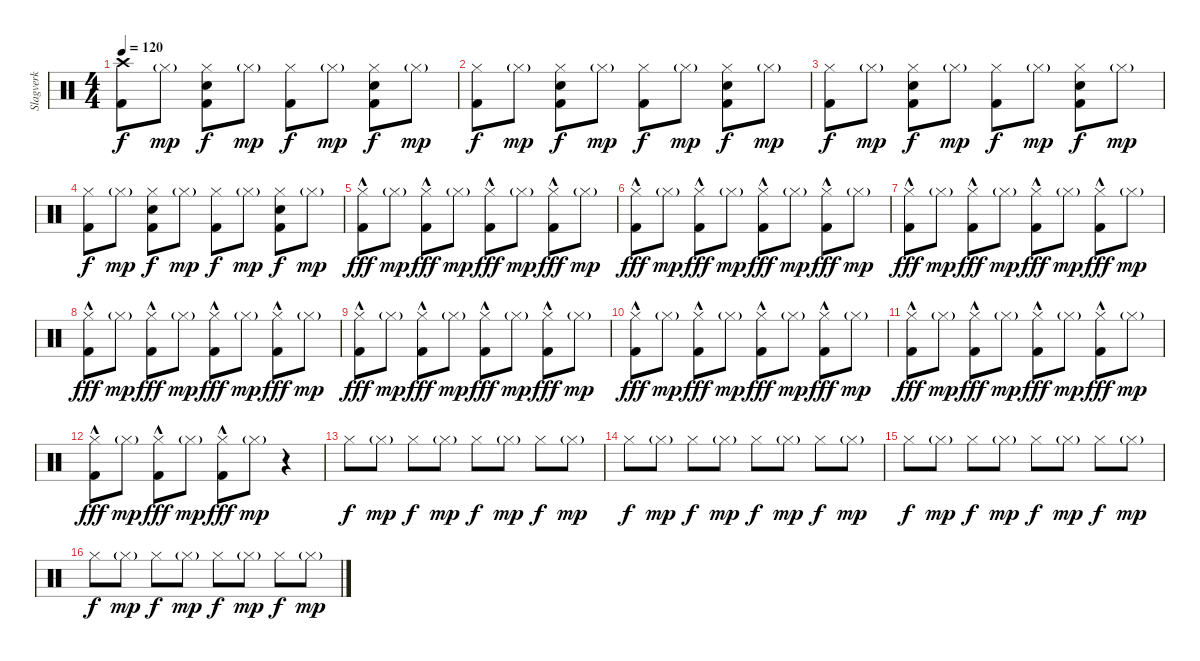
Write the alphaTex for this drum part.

\track ("Slagverk" "Slagverk") {instrument percussion}
\staff {score}
\articulation defaults
\ts (4 4)
\tempo 120
\clef neutral
\ks c
("Kick (hit) 2" "Crash high (hit)").8{dy f} "Hi-Hat (closed)"{g}.8{dy mp} ("Kick (hit) 2" "Hi-Hat (closed)" "Snare (hit) 2").8{dy f} "Hi-Hat (closed)"{g}.8{dy mp} ("Kick (hit) 2" "Hi-Hat (closed)").8{dy f} "Hi-Hat (closed)"{g}.8{dy mp} ("Kick (hit) 2" "Hi-Hat (closed)" "Snare (hit) 2").8{dy f} "Hi-Hat (closed)"{g}.8{dy mp} |
("Kick (hit) 2" "Hi-Hat (closed)").8{dy f} "Hi-Hat (closed)"{g}.8{dy mp} ("Kick (hit) 2" "Hi-Hat (closed)" "Snare (hit) 2").8{dy f} "Hi-Hat (closed)"{g}.8{dy mp} ("Kick (hit) 2" "Hi-Hat (closed)").8{dy f} "Hi-Hat (closed)"{g}.8{dy mp} ("Kick (hit) 2" "Hi-Hat (closed)" "Snare (hit) 2").8{dy f} "Hi-Hat (closed)"{g}.8{dy mp} |
("Kick (hit) 2" "Hi-Hat (closed)").8{dy f} "Hi-Hat (closed)"{g}.8{dy mp} ("Kick (hit) 2" "Hi-Hat (closed)" "Snare (hit) 2").8{dy f} "Hi-Hat (closed)"{g}.8{dy mp} ("Kick (hit) 2" "Hi-Hat (closed)").8{dy f} "Hi-Hat (closed)"{g}.8{dy mp} ("Kick (hit) 2" "Hi-Hat (closed)" "Snare (hit) 2").8{dy f} "Hi-Hat (closed)"{g}.8{dy mp} |
("Kick (hit) 2" "Hi-Hat (closed)").8{dy f} "Hi-Hat (closed)"{g}.8{dy mp} ("Kick (hit) 2" "Hi-Hat (closed)" "Snare (hit) 2").8{dy f} "Hi-Hat (closed)"{g}.8{dy mp} ("Kick (hit) 2" "Hi-Hat (closed)").8{dy f} "Hi-Hat (closed)"{g}.8{dy mp} ("Kick (hit) 2" "Hi-Hat (closed)" "Snare (hit) 2").8{dy f} "Hi-Hat (closed)"{g}.8{dy mp} |
("Kick (hit) 2"{hac} "Hi-Hat (closed)").8{dy fff} "Hi-Hat (closed)"{g}.8{dy mp} ("Kick (hit) 2"{hac} "Hi-Hat (closed)").8{dy fff} "Hi-Hat (closed)"{g}.8{dy mp} ("Kick (hit) 2"{hac} "Hi-Hat (closed)").8{dy fff} "Hi-Hat (closed)"{g}.8{dy mp} ("Kick (hit) 2"{hac} "Hi-Hat (closed)").8{dy fff} "Hi-Hat (closed)"{g}.8{dy mp} |
("Kick (hit) 2"{hac} "Hi-Hat (closed)").8{dy fff} "Hi-Hat (closed)"{g}.8{dy mp} ("Kick (hit) 2"{hac} "Hi-Hat (closed)").8{dy fff} "Hi-Hat (closed)"{g}.8{dy mp} ("Kick (hit) 2"{hac} "Hi-Hat (closed)").8{dy fff} "Hi-Hat (closed)"{g}.8{dy mp} ("Kick (hit) 2"{hac} "Hi-Hat (closed)").8{dy fff} "Hi-Hat (closed)"{g}.8{dy mp} |
("Kick (hit) 2"{hac} "Hi-Hat (closed)").8{dy fff} "Hi-Hat (closed)"{g}.8{dy mp} ("Kick (hit) 2"{hac} "Hi-Hat (closed)").8{dy fff} "Hi-Hat (closed)"{g}.8{dy mp} ("Kick (hit) 2"{hac} "Hi-Hat (closed)").8{dy fff} "Hi-Hat (closed)"{g}.8{dy mp} ("Kick (hit) 2"{hac} "Hi-Hat (closed)").8{dy fff} "Hi-Hat (closed)"{g}.8{dy mp} |
("Kick (hit) 2"{hac} "Hi-Hat (closed)").8{dy fff} "Hi-Hat (closed)"{g}.8{dy mp} ("Kick (hit) 2"{hac} "Hi-Hat (closed)").8{dy fff} "Hi-Hat (closed)"{g}.8{dy mp} ("Kick (hit) 2"{hac} "Hi-Hat (closed)").8{dy fff} "Hi-Hat (closed)"{g}.8{dy mp} ("Kick (hit) 2"{hac} "Hi-Hat (closed)").8{dy fff} "Hi-Hat (closed)"{g}.8{dy mp} |
("Kick (hit) 2"{hac} "Hi-Hat (closed)").8{dy fff} "Hi-Hat (closed)"{g}.8{dy mp} ("Kick (hit) 2"{hac} "Hi-Hat (closed)").8{dy fff} "Hi-Hat (closed)"{g}.8{dy mp} ("Kick (hit) 2"{hac} "Hi-Hat (closed)").8{dy fff} "Hi-Hat (closed)"{g}.8{dy mp} ("Kick (hit) 2"{hac} "Hi-Hat (closed)").8{dy fff} "Hi-Hat (closed)"{g}.8{dy mp} |
("Kick (hit) 2"{hac} "Hi-Hat (closed)").8{dy fff} "Hi-Hat (closed)"{g}.8{dy mp} ("Kick (hit) 2"{hac} "Hi-Hat (closed)").8{dy fff} "Hi-Hat (closed)"{g}.8{dy mp} ("Kick (hit) 2"{hac} "Hi-Hat (closed)").8{dy fff} "Hi-Hat (closed)"{g}.8{dy mp} ("Kick (hit) 2"{hac} "Hi-Hat (closed)").8{dy fff} "Hi-Hat (closed)"{g}.8{dy mp} |
("Kick (hit) 2"{hac} "Hi-Hat (closed)").8{dy fff} "Hi-Hat (closed)"{g}.8{dy mp} ("Kick (hit) 2"{hac} "Hi-Hat (closed)").8{dy fff} "Hi-Hat (closed)"{g}.8{dy mp} ("Kick (hit) 2"{hac} "Hi-Hat (closed)").8{dy fff} "Hi-Hat (closed)"{g}.8{dy mp} ("Kick (hit) 2"{hac} "Hi-Hat (closed)").8{dy fff} "Hi-Hat (closed)"{g}.8{dy mp} |
("Kick (hit) 2"{hac} "Hi-Hat (closed)").8{dy fff} "Hi-Hat (closed)"{g}.8{dy mp} ("Kick (hit) 2"{hac} "Hi-Hat (closed)").8{dy fff} "Hi-Hat (closed)"{g}.8{dy mp} ("Kick (hit) 2"{hac} "Hi-Hat (closed)").8{dy fff} "Hi-Hat (closed)"{g}.8{dy mp} r.4 |
"Hi-Hat (closed)".8{dy f} "Hi-Hat (closed)"{g}.8{dy mp} "Hi-Hat (closed)".8{dy f} "Hi-Hat (closed)"{g}.8{dy mp} "Hi-Hat (closed)".8{dy f} "Hi-Hat (closed)"{g}.8{dy mp} "Hi-Hat (closed)".8{dy f} "Hi-Hat (closed)"{g}.8{dy mp} |
"Hi-Hat (closed)".8{dy f} "Hi-Hat (closed)"{g}.8{dy mp} "Hi-Hat (closed)".8{dy f} "Hi-Hat (closed)"{g}.8{dy mp} "Hi-Hat (closed)".8{dy f} "Hi-Hat (closed)"{g}.8{dy mp} "Hi-Hat (closed)".8{dy f} "Hi-Hat (closed)"{g}.8{dy mp} |
"Hi-Hat (closed)".8{dy f} "Hi-Hat (closed)"{g}.8{dy mp} "Hi-Hat (closed)".8{dy f} "Hi-Hat (closed)"{g}.8{dy mp} "Hi-Hat (closed)".8{dy f} "Hi-Hat (closed)"{g}.8{dy mp} "Hi-Hat (closed)".8{dy f} "Hi-Hat (closed)"{g}.8{dy mp} |
"Hi-Hat (closed)".8{dy f} "Hi-Hat (closed)"{g}.8{dy mp} "Hi-Hat (closed)".8{dy f} "Hi-Hat (closed)"{g}.8{dy mp} "Hi-Hat (closed)".8{dy f} "Hi-Hat (closed)"{g}.8{dy mp} "Hi-Hat (closed)".8{dy f} "Hi-Hat (closed)"{g}.8{dy mp}
